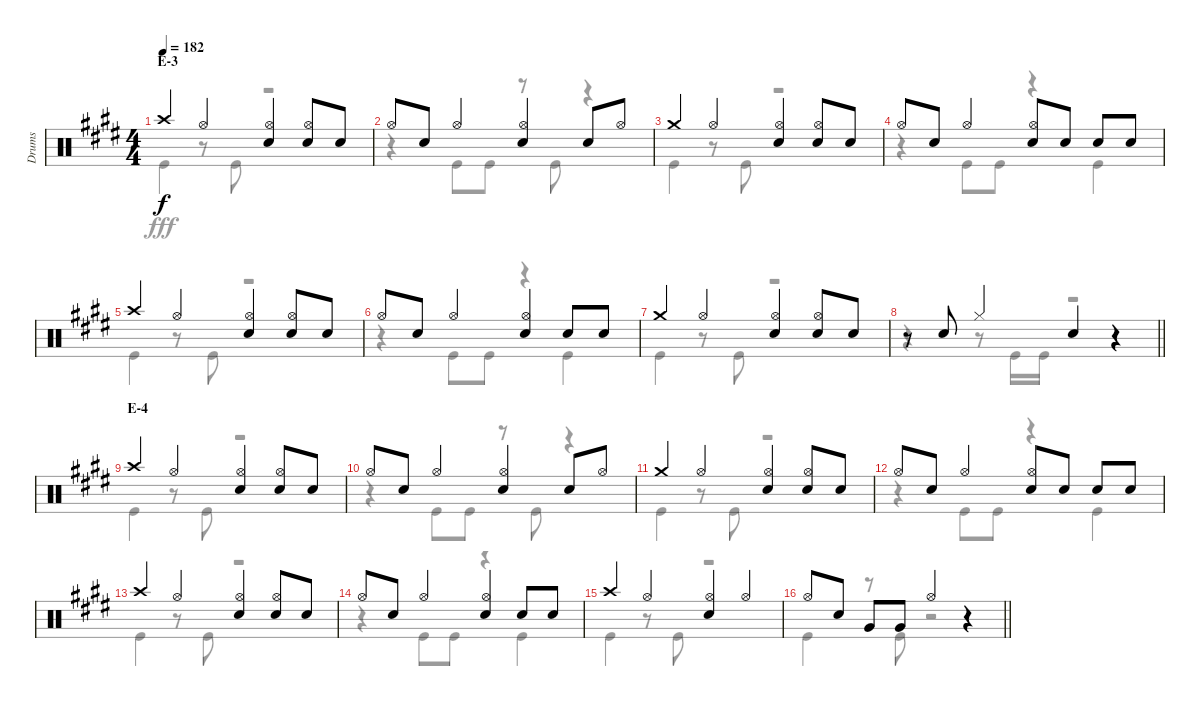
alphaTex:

\track ("Drums" "Drums") {instrument percussion}
\staff {score}
\articulation defaults
\voice
\ts (4 4)
\section ("" "E-3")
\tempo 182
\clef neutral
\ks e "Crash high (hit)".4{dy f} "Hi-Hat (open)".4
("Hi-Hat (open)" "Snare (hit) 2").4 ("Hi-Hat (open)" "Snare (hit) 2").8 "Snare (hit) 2".8 |
"Hi-Hat (open)".8 "Snare (hit) 2".8 "Hi-Hat (open)".4 ("Hi-Hat (open)" "Snare (hit) 2").4 "Snare (hit) 2".8 "Hi-Hat (open)".8 |
"Crash medium (hit)".4 "Hi-Hat (open)".4 ("Hi-Hat (open)" "Snare (hit) 2").4 ("Hi-Hat (open)" "Snare (hit) 2").8 "Snare (hit) 2".8 |
"Hi-Hat (open)".8 "Snare (hit) 2".8 "Hi-Hat (open)".4 ("Hi-Hat (open)" "Snare (hit) 2").8 "Snare (hit) 2".8 "Snare (hit) 2".8 "Snare (hit) 2".8 |
"Crash high (hit)".4 "Hi-Hat (open)".4 ("Hi-Hat (open)" "Snare (hit) 2").4 ("Hi-Hat (open)" "Snare (hit) 2").8 "Snare (hit) 2".8 |
"Hi-Hat (open)".8 "Snare (hit) 2".8 "Hi-Hat (open)".4 ("Hi-Hat (open)" "Snare (hit) 2").4 "Snare (hit) 2".8 "Snare (hit) 2".8 |
"Crash medium (hit)".4 "Hi-Hat (open)".4 ("Hi-Hat (open)" "Snare (hit) 2").4 ("Hi-Hat (open)" "Snare (hit) 2").8 "Snare (hit) 2".8 |
\barLineRight lightlight
r.8 "Snare (hit) 2".8 "Hi-Hat (closed)".4 "Snare (hit) 2".4 r.4 |
\section ("" "E-4")
"Crash high (hit)".4 "Hi-Hat (open)".4 ("Hi-Hat (open)" "Snare (hit) 2").4 ("Hi-Hat (open)" "Snare (hit) 2").8 "Snare (hit) 2".8 |
"Hi-Hat (open)".8 "Snare (hit) 2".8 "Hi-Hat (open)".4 ("Hi-Hat (open)" "Snare (hit) 2").4 "Snare (hit) 2".8 "Hi-Hat (open)".8 |
"Crash medium (hit)".4 "Hi-Hat (open)".4 ("Hi-Hat (open)" "Snare (hit) 2").4 ("Hi-Hat (open)" "Snare (hit) 2").8 "Snare (hit) 2".8 |
"Hi-Hat (open)".8 "Snare (hit) 2".8 "Hi-Hat (open)".4 ("Hi-Hat (open)" "Snare (hit) 2").8 "Snare (hit) 2".8 "Snare (hit) 2".8 "Snare (hit) 2".8 |
"Crash high (hit)".4 "Hi-Hat (open)".4 ("Hi-Hat (open)" "Snare (hit) 2").4 ("Hi-Hat (open)" "Snare (hit) 2").8 "Snare (hit) 2".8 |
"Hi-Hat (open)".8 "Snare (hit) 2".8 "Hi-Hat (open)".4 ("Hi-Hat (open)" "Snare (hit) 2").4 "Snare (hit) 2".8 "Snare (hit) 2".8 |
"Crash high (hit)".4 "Hi-Hat (open)".4 ("Hi-Hat (open)" "Snare (hit) 2").4 "Hi-Hat (open)".4 |
\barLineRight lightlight "Hi-Hat (open)".8 "Snare (hit) 2".8 "Very Low Tom (hit)".8 "Very Low Tom (hit)".8 "Hi-Hat (open)".4
r.4
\voice
\clef neutral
\ottava regular
\simile none
\ks e "Kick (hit)".4{dy fff}
r.8 "Kick (hit)".8 r.2 |
r.4 "Kick (hit)".8 "Kick (hit)".8 r.8 "Kick (hit)".8 r.4 |
"Kick (hit)".4 r.8 "Kick (hit)".8 r.2 |
r.4 "Kick (hit)".8 "Kick (hit)".8 r.4 "Kick (hit)".4 |
"Kick (hit)".4 r.8 "Kick (hit)".8 r.2 |
r.4 "Kick (hit)".8 "Kick (hit)".8 r.4 "Kick (hit)".4 |
"Kick (hit)".4 r.8 "Kick (hit)".8 r.2 |
\barLineRight lightlight
r.4 r.8 "Kick (hit)".16 "Kick (hit)".16 r.2 |
"Kick (hit)".4 r.8 "Kick (hit)".8 r.2 |
r.4 "Kick (hit)".8 "Kick (hit)".8 r.8 "Kick (hit)".8 r.4 |
"Kick (hit)".4 r.8 "Kick (hit)".8 r.2 |
r.4 "Kick (hit)".8 "Kick (hit)".8 r.4 "Kick (hit)".4 |
"Kick (hit)".4 r.8 "Kick (hit)".8 r.2 |
r.4 "Kick (hit)".8 "Kick (hit)".8 r.4 "Kick (hit)".4 |
"Kick (hit)".4 r.8 "Kick (hit)".8 r.2 |
\barLineRight lightlight "Kick (hit)".4
r.8 "Kick (hit)".8 r.2
